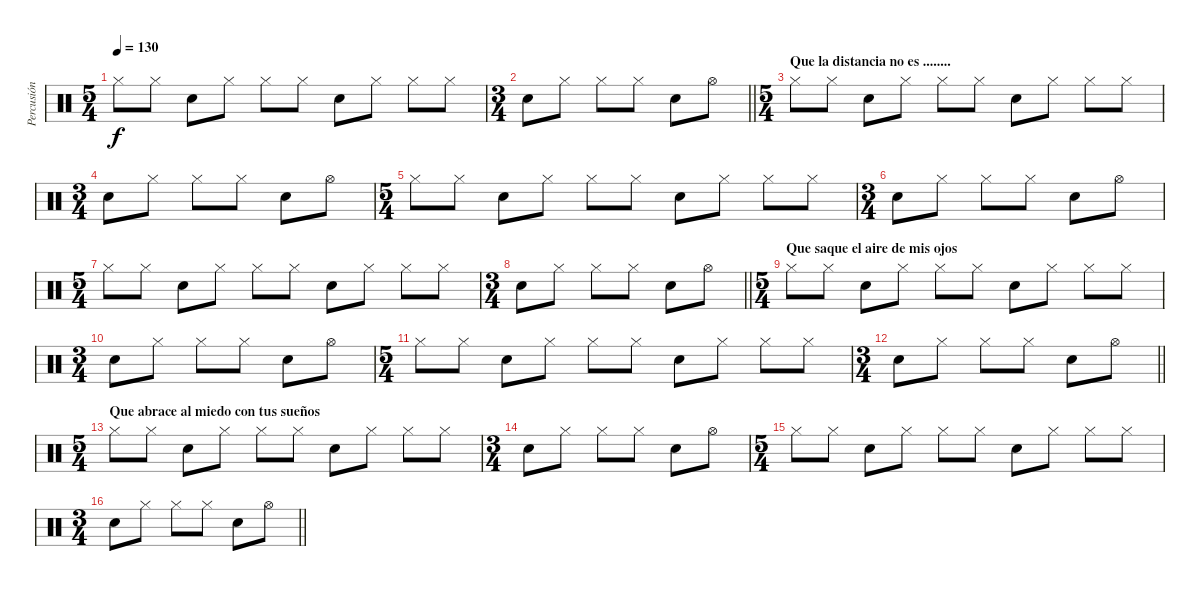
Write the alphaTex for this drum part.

\track ("Percusión" "Percusión") {instrument percussion}
\staff {score}
\articulation defaults
\ts (5 4)
\tempo 130
\clef neutral
\ks c "Hi-Hat (closed)".8{dy f} "Hi-Hat (closed)".8 "Snare (hit) 2".8 "Hi-Hat (closed)".8 "Hi-Hat (closed)".8 "Hi-Hat (closed)".8 "Snare (hit) 2".8 "Hi-Hat (closed)".8 "Hi-Hat (closed)".8 "Hi-Hat (closed)".8
|
\ts (3 4)
\barLineRight lightlight "Snare (hit) 2".8 "Hi-Hat (closed)".8 "Hi-Hat (closed)".8 "Hi-Hat (closed)".8 "Snare (hit) 2".8 "Hi-Hat (open)".8
|
\ts (5 4)
\section ("" "Que la distancia no es ........")
"Hi-Hat (closed)".8 "Hi-Hat (closed)".8 "Snare (hit) 2".8 "Hi-Hat (closed)".8 "Hi-Hat (closed)".8 "Hi-Hat (closed)".8 "Snare (hit) 2".8 "Hi-Hat (closed)".8 "Hi-Hat (closed)".8 "Hi-Hat (closed)".8 |
\ts (3 4)
"Snare (hit) 2".8 "Hi-Hat (closed)".8 "Hi-Hat (closed)".8 "Hi-Hat (closed)".8 "Snare (hit) 2".8 "Hi-Hat (open)".8 |
\ts (5 4)
"Hi-Hat (closed)".8 "Hi-Hat (closed)".8 "Snare (hit) 2".8 "Hi-Hat (closed)".8 "Hi-Hat (closed)".8 "Hi-Hat (closed)".8 "Snare (hit) 2".8 "Hi-Hat (closed)".8 "Hi-Hat (closed)".8 "Hi-Hat (closed)".8 |
\ts (3 4)
"Snare (hit) 2".8 "Hi-Hat (closed)".8 "Hi-Hat (closed)".8 "Hi-Hat (closed)".8 "Snare (hit) 2".8 "Hi-Hat (open)".8 |
\ts (5 4)
"Hi-Hat (closed)".8 "Hi-Hat (closed)".8 "Snare (hit) 2".8 "Hi-Hat (closed)".8 "Hi-Hat (closed)".8 "Hi-Hat (closed)".8 "Snare (hit) 2".8 "Hi-Hat (closed)".8 "Hi-Hat (closed)".8 "Hi-Hat (closed)".8 |
\ts (3 4)
\barLineRight lightlight "Snare (hit) 2".8 "Hi-Hat (closed)".8 "Hi-Hat (closed)".8 "Hi-Hat (closed)".8 "Snare (hit) 2".8 "Hi-Hat (open)".8
|
\ts (5 4)
\section ("" "Que saque el aire de mis ojos")
"Hi-Hat (closed)".8 "Hi-Hat (closed)".8 "Snare (hit) 2".8 "Hi-Hat (closed)".8 "Hi-Hat (closed)".8 "Hi-Hat (closed)".8 "Snare (hit) 2".8 "Hi-Hat (closed)".8 "Hi-Hat (closed)".8 "Hi-Hat (closed)".8 |
\ts (3 4)
"Snare (hit) 2".8 "Hi-Hat (closed)".8 "Hi-Hat (closed)".8 "Hi-Hat (closed)".8 "Snare (hit) 2".8 "Hi-Hat (open)".8 |
\ts (5 4)
"Hi-Hat (closed)".8 "Hi-Hat (closed)".8 "Snare (hit) 2".8 "Hi-Hat (closed)".8 "Hi-Hat (closed)".8 "Hi-Hat (closed)".8 "Snare (hit) 2".8 "Hi-Hat (closed)".8 "Hi-Hat (closed)".8 "Hi-Hat (closed)".8 |
\ts (3 4)
\barLineRight lightlight "Snare (hit) 2".8 "Hi-Hat (closed)".8 "Hi-Hat (closed)".8 "Hi-Hat (closed)".8 "Snare (hit) 2".8 "Hi-Hat (open)".8
|
\ts (5 4)
\section ("" "Que abrace al miedo con tus sueños")
"Hi-Hat (closed)".8 "Hi-Hat (closed)".8 "Snare (hit) 2".8 "Hi-Hat (closed)".8 "Hi-Hat (closed)".8 "Hi-Hat (closed)".8 "Snare (hit) 2".8 "Hi-Hat (closed)".8 "Hi-Hat (closed)".8 "Hi-Hat (closed)".8 |
\ts (3 4)
"Snare (hit) 2".8 "Hi-Hat (closed)".8 "Hi-Hat (closed)".8 "Hi-Hat (closed)".8 "Snare (hit) 2".8 "Hi-Hat (open)".8 |
\ts (5 4)
"Hi-Hat (closed)".8 "Hi-Hat (closed)".8 "Snare (hit) 2".8 "Hi-Hat (closed)".8 "Hi-Hat (closed)".8 "Hi-Hat (closed)".8 "Snare (hit) 2".8 "Hi-Hat (closed)".8 "Hi-Hat (closed)".8 "Hi-Hat (closed)".8 |
\ts (3 4)
\barLineRight lightlight "Snare (hit) 2".8 "Hi-Hat (closed)".8 "Hi-Hat (closed)".8 "Hi-Hat (closed)".8 "Snare (hit) 2".8 "Hi-Hat (open)".8
